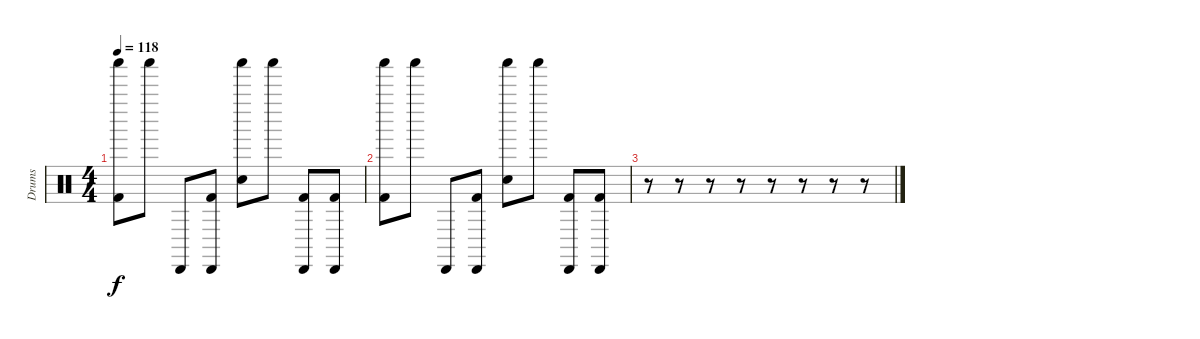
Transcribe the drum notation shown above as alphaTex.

\track ("Drums" "Drums") {instrument percussion}
\staff {score}
\articulation defaults
\ts (4 4)
\tempo 118
\clef neutral
\ks c
("Shaker (hit)" "Kick (hit) 2").8{dy f} "Shaker (hit)".8 "Cabasa (hit)".8 ("Cabasa (hit)" "Kick (hit) 2").8 ("Shaker (hit)" "Electric Snare (hit)").8 "Shaker (hit)".8 ("Cabasa (hit)" "Kick (hit) 2").8 ("Cabasa (hit)" "Kick (hit) 2").8 |
("Shaker (hit)" "Kick (hit) 2").8 "Shaker (hit)".8 "Cabasa (hit)".8 ("Cabasa (hit)" "Kick (hit) 2").8 ("Shaker (hit)" "Electric Snare (hit)").8 "Shaker (hit)".8 ("Cabasa (hit)" "Kick (hit) 2").8 ("Cabasa (hit)" "Kick (hit) 2").8 |
r.8 r.8 r.8 r.8 r.8 r.8 r.8 r.8
